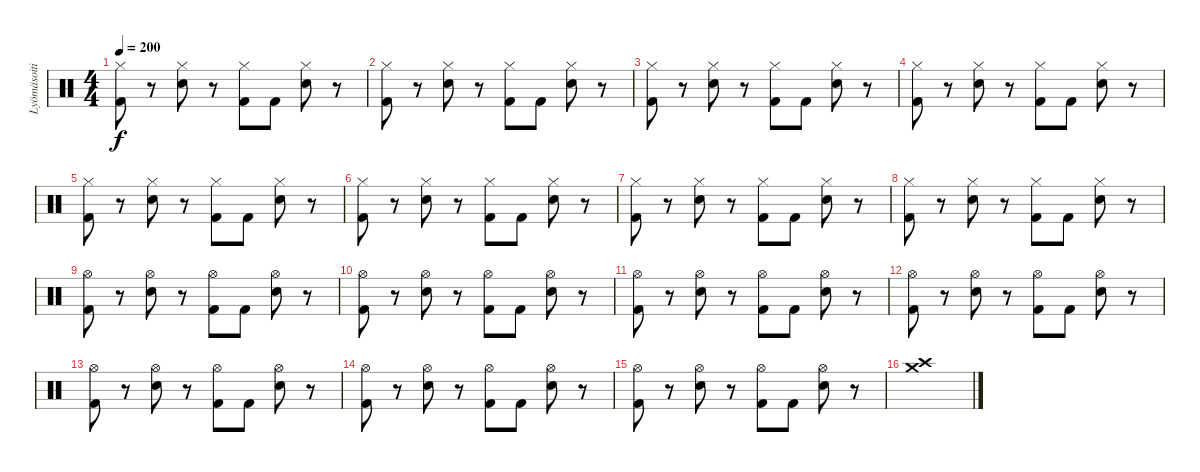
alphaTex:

\track ("Lyömäsoitin" "Lyömäsoiti") {instrument percussion}
\staff {score}
\articulation defaults
\ts (4 4)
\tempo 200
\clef neutral
\ks c
("Hi-Hat (closed)" "Kick (hit) 2").8{dy f} r.8 ("Hi-Hat (closed)" "Snare (hit) 2").8 r.8 ("Hi-Hat (closed)" "Kick (hit) 2").8 "Kick (hit) 2".8 ("Hi-Hat (closed)" "Snare (hit) 2").8 r.8 |
("Hi-Hat (closed)" "Kick (hit) 2").8 r.8 ("Hi-Hat (closed)" "Snare (hit) 2").8 r.8 ("Hi-Hat (closed)" "Kick (hit) 2").8 "Kick (hit) 2".8 ("Hi-Hat (closed)" "Snare (hit) 2").8 r.8 |
("Hi-Hat (closed)" "Kick (hit) 2").8 r.8 ("Hi-Hat (closed)" "Snare (hit) 2").8 r.8 ("Hi-Hat (closed)" "Kick (hit) 2").8 "Kick (hit) 2".8 ("Hi-Hat (closed)" "Snare (hit) 2").8 r.8 |
("Hi-Hat (closed)" "Kick (hit) 2").8 r.8 ("Hi-Hat (closed)" "Snare (hit) 2").8 r.8 ("Hi-Hat (closed)" "Kick (hit) 2").8 "Kick (hit) 2".8 ("Hi-Hat (closed)" "Snare (hit) 2").8 r.8 |
("Hi-Hat (closed)" "Kick (hit) 2").8 r.8 ("Hi-Hat (closed)" "Snare (hit) 2").8 r.8 ("Hi-Hat (closed)" "Kick (hit) 2").8 "Kick (hit) 2".8 ("Hi-Hat (closed)" "Snare (hit) 2").8 r.8 |
("Hi-Hat (closed)" "Kick (hit) 2").8 r.8 ("Hi-Hat (closed)" "Snare (hit) 2").8 r.8 ("Hi-Hat (closed)" "Kick (hit) 2").8 "Kick (hit) 2".8 ("Hi-Hat (closed)" "Snare (hit) 2").8 r.8 |
("Hi-Hat (closed)" "Kick (hit) 2").8 r.8 ("Hi-Hat (closed)" "Snare (hit) 2").8 r.8 ("Hi-Hat (closed)" "Kick (hit) 2").8 "Kick (hit) 2".8 ("Hi-Hat (closed)" "Snare (hit) 2").8 r.8 |
("Hi-Hat (closed)" "Kick (hit) 2").8 r.8 ("Hi-Hat (closed)" "Snare (hit) 2").8 r.8 ("Hi-Hat (closed)" "Kick (hit) 2").8 "Kick (hit) 2".8 ("Hi-Hat (closed)" "Snare (hit) 2").8 r.8 |
("Hi-Hat (open)" "Kick (hit) 2").8 r.8 ("Hi-Hat (open)" "Snare (hit) 2").8 r.8 ("Hi-Hat (open)" "Kick (hit) 2").8 "Kick (hit) 2".8 ("Hi-Hat (open)" "Snare (hit) 2").8 r.8 |
("Hi-Hat (open)" "Kick (hit) 2").8 r.8 ("Hi-Hat (open)" "Snare (hit) 2").8 r.8 ("Hi-Hat (open)" "Kick (hit) 2").8 "Kick (hit) 2".8 ("Hi-Hat (open)" "Snare (hit) 2").8 r.8 |
("Hi-Hat (open)" "Kick (hit) 2").8 r.8 ("Hi-Hat (open)" "Snare (hit) 2").8 r.8 ("Hi-Hat (open)" "Kick (hit) 2").8 "Kick (hit) 2".8 ("Hi-Hat (open)" "Snare (hit) 2").8 r.8 |
("Hi-Hat (open)" "Kick (hit) 2").8 r.8 ("Hi-Hat (open)" "Snare (hit) 2").8 r.8 ("Hi-Hat (open)" "Kick (hit) 2").8 "Kick (hit) 2".8 ("Hi-Hat (open)" "Snare (hit) 2").8 r.8 |
("Hi-Hat (open)" "Kick (hit) 2").8 r.8 ("Hi-Hat (open)" "Snare (hit) 2").8 r.8 ("Hi-Hat (open)" "Kick (hit) 2").8 "Kick (hit) 2".8 ("Hi-Hat (open)" "Snare (hit) 2").8 r.8 |
("Hi-Hat (open)" "Kick (hit) 2").8 r.8 ("Hi-Hat (open)" "Snare (hit) 2").8 r.8 ("Hi-Hat (open)" "Kick (hit) 2").8 "Kick (hit) 2".8 ("Hi-Hat (open)" "Snare (hit) 2").8 r.8 |
("Hi-Hat (open)" "Kick (hit) 2").8 r.8 ("Hi-Hat (open)" "Snare (hit) 2").8 r.8 ("Hi-Hat (open)" "Kick (hit) 2").8 "Kick (hit) 2".8 ("Hi-Hat (open)" "Snare (hit) 2").8 r.8 |
("Crash high (hit)" "Crash medium (hit)").1
